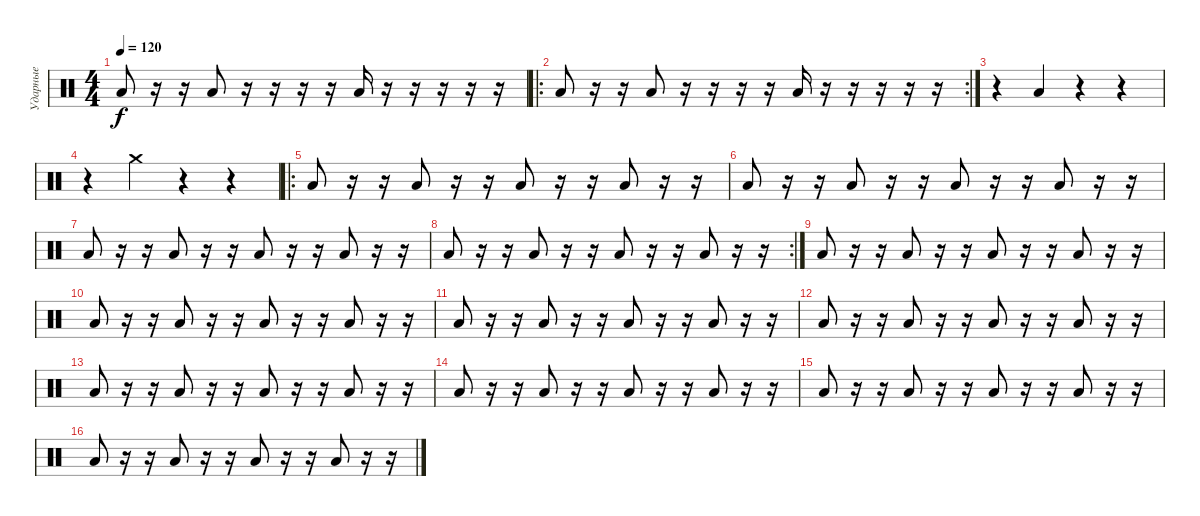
\track ("Ударные" "Ударные") {instrument percussion}
\staff {score}
\articulation defaults
\ts (4 4)
\tempo 120
\clef neutral
\ks c "Low Floor Tom (hit)".8{dy f}
r.16 r.16 "Low Floor Tom (hit)".8 r.16 r.16 r.16 r.16 "Low Floor Tom (hit)".16 r.16 r.16 r.16 r.16 r.16 |
\ro
\rc 2 "Low Floor Tom (hit)".8
r.16 r.16 "Low Floor Tom (hit)".8 r.16 r.16 r.16 r.16 "Low Floor Tom (hit)".16 r.16 r.16 r.16 r.16 r.16 |
r.4 "Low Floor Tom (hit)".4 r.4 r.4 |
r.4 "Crash medium (hit)".4 r.4 r.4 |
\ro "Low Floor Tom (hit)".8
r.16 r.16 "Low Floor Tom (hit)".8 r.16 r.16 "Low Floor Tom (hit)".8 r.16 r.16 "Low Floor Tom (hit)".8 r.16 r.16 |
"Low Floor Tom (hit)".8 r.16 r.16 "Low Floor Tom (hit)".8 r.16 r.16 "Low Floor Tom (hit)".8 r.16 r.16 "Low Floor Tom (hit)".8 r.16 r.16 |
"Low Floor Tom (hit)".8 r.16 r.16 "Low Floor Tom (hit)".8 r.16 r.16 "Low Floor Tom (hit)".8 r.16 r.16 "Low Floor Tom (hit)".8 r.16 r.16 |
\rc 2 "Low Floor Tom (hit)".8
r.16 r.16 "Low Floor Tom (hit)".8 r.16 r.16 "Low Floor Tom (hit)".8 r.16 r.16 "Low Floor Tom (hit)".8 r.16 r.16 |
"Low Floor Tom (hit)".8 r.16 r.16 "Low Floor Tom (hit)".8 r.16 r.16 "Low Floor Tom (hit)".8 r.16 r.16 "Low Floor Tom (hit)".8 r.16 r.16 |
"Low Floor Tom (hit)".8 r.16 r.16 "Low Floor Tom (hit)".8 r.16 r.16 "Low Floor Tom (hit)".8 r.16 r.16 "Low Floor Tom (hit)".8 r.16 r.16 |
"Low Floor Tom (hit)".8 r.16 r.16 "Low Floor Tom (hit)".8 r.16 r.16 "Low Floor Tom (hit)".8 r.16 r.16 "Low Floor Tom (hit)".8 r.16 r.16 |
"Low Floor Tom (hit)".8 r.16 r.16 "Low Floor Tom (hit)".8 r.16 r.16 "Low Floor Tom (hit)".8 r.16 r.16 "Low Floor Tom (hit)".8 r.16 r.16 |
"Low Floor Tom (hit)".8 r.16 r.16 "Low Floor Tom (hit)".8 r.16 r.16 "Low Floor Tom (hit)".8 r.16 r.16 "Low Floor Tom (hit)".8 r.16 r.16 |
"Low Floor Tom (hit)".8 r.16 r.16 "Low Floor Tom (hit)".8 r.16 r.16 "Low Floor Tom (hit)".8 r.16 r.16 "Low Floor Tom (hit)".8 r.16 r.16 |
"Low Floor Tom (hit)".8 r.16 r.16 "Low Floor Tom (hit)".8 r.16 r.16 "Low Floor Tom (hit)".8 r.16 r.16 "Low Floor Tom (hit)".8 r.16 r.16 |
"Low Floor Tom (hit)".8 r.16 r.16 "Low Floor Tom (hit)".8 r.16 r.16 "Low Floor Tom (hit)".8 r.16 r.16 "Low Floor Tom (hit)".8 r.16 r.16
